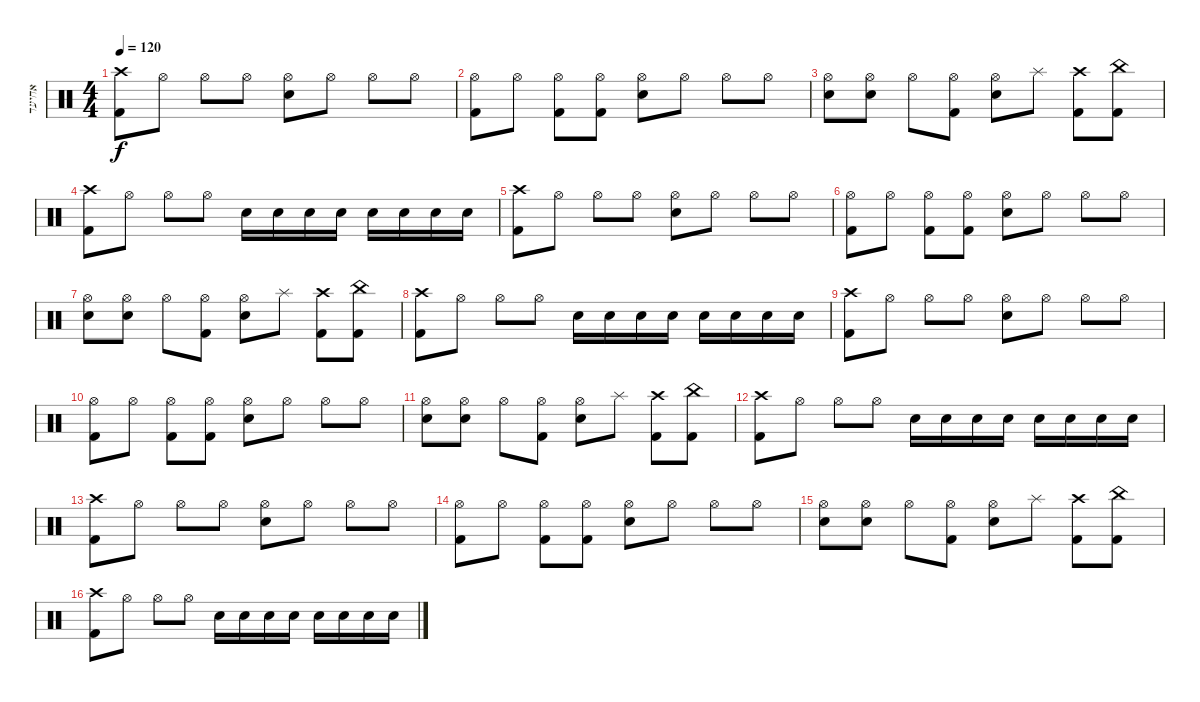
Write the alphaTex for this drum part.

\track ("אחיעד" "אחיעד") {instrument percussion}
\staff {score}
\articulation defaults
\ts (4 4)
\tempo 120
\clef neutral
\ks c
("Crash high (hit)" "Kick (hit) 2").8{dy f} "Hi-Hat (open)".8 "Hi-Hat (open)".8 "Hi-Hat (open)".8 ("Hi-Hat (open)" "Snare (hit) 2").8 "Hi-Hat (open)".8 "Hi-Hat (open)".8 "Hi-Hat (open)".8 |
("Hi-Hat (open)" "Kick (hit) 2").8 "Hi-Hat (open)".8 ("Hi-Hat (open)" "Kick (hit) 2").8 ("Hi-Hat (open)" "Kick (hit) 2").8 ("Hi-Hat (open)" "Snare (hit) 2").8 "Hi-Hat (open)".8 "Hi-Hat (open)".8 "Hi-Hat (open)".8 |
("Hi-Hat (open)" "Snare (hit) 2").8 ("Hi-Hat (open)" "Snare (hit) 2").8 "Hi-Hat (open)".8 ("Hi-Hat (open)" "Kick (hit) 2").8 ("Hi-Hat (open)" "Snare (hit) 2").8 "Splash (hit)".8 ("Crash high (hit)" "Kick (hit) 2").8 ("China (hit)" "Kick (hit) 2").8 |
("Crash high (hit)" "Kick (hit) 2").8 "Hi-Hat (open)".8 "Hi-Hat (open)".8 "Hi-Hat (open)".8 "Snare (hit) 2".16 "Snare (hit) 2".16 "Snare (hit) 2".16 "Snare (hit) 2".16 "Snare (hit) 2".16 "Snare (hit) 2".16 "Snare (hit) 2".16 "Snare (hit) 2".16 |
("Crash high (hit)" "Kick (hit) 2").8 "Hi-Hat (open)".8 "Hi-Hat (open)".8 "Hi-Hat (open)".8 ("Hi-Hat (open)" "Snare (hit) 2").8 "Hi-Hat (open)".8 "Hi-Hat (open)".8 "Hi-Hat (open)".8 |
("Hi-Hat (open)" "Kick (hit) 2").8 "Hi-Hat (open)".8 ("Hi-Hat (open)" "Kick (hit) 2").8 ("Hi-Hat (open)" "Kick (hit) 2").8 ("Hi-Hat (open)" "Snare (hit) 2").8 "Hi-Hat (open)".8 "Hi-Hat (open)".8 "Hi-Hat (open)".8 |
("Hi-Hat (open)" "Snare (hit) 2").8 ("Hi-Hat (open)" "Snare (hit) 2").8 "Hi-Hat (open)".8 ("Hi-Hat (open)" "Kick (hit) 2").8 ("Hi-Hat (open)" "Snare (hit) 2").8 "Splash (hit)".8 ("Crash high (hit)" "Kick (hit) 2").8 ("China (hit)" "Kick (hit) 2").8 |
("Crash high (hit)" "Kick (hit) 2").8 "Hi-Hat (open)".8 "Hi-Hat (open)".8 "Hi-Hat (open)".8 "Snare (hit) 2".16 "Snare (hit) 2".16 "Snare (hit) 2".16 "Snare (hit) 2".16 "Snare (hit) 2".16 "Snare (hit) 2".16 "Snare (hit) 2".16 "Snare (hit) 2".16 |
("Crash high (hit)" "Kick (hit) 2").8 "Hi-Hat (open)".8 "Hi-Hat (open)".8 "Hi-Hat (open)".8 ("Hi-Hat (open)" "Snare (hit) 2").8 "Hi-Hat (open)".8 "Hi-Hat (open)".8 "Hi-Hat (open)".8 |
("Hi-Hat (open)" "Kick (hit) 2").8 "Hi-Hat (open)".8 ("Hi-Hat (open)" "Kick (hit) 2").8 ("Hi-Hat (open)" "Kick (hit) 2").8 ("Hi-Hat (open)" "Snare (hit) 2").8 "Hi-Hat (open)".8 "Hi-Hat (open)".8 "Hi-Hat (open)".8 |
("Hi-Hat (open)" "Snare (hit) 2").8 ("Hi-Hat (open)" "Snare (hit) 2").8 "Hi-Hat (open)".8 ("Hi-Hat (open)" "Kick (hit) 2").8 ("Hi-Hat (open)" "Snare (hit) 2").8 "Splash (hit)".8 ("Crash high (hit)" "Kick (hit) 2").8 ("China (hit)" "Kick (hit) 2").8 |
("Crash high (hit)" "Kick (hit) 2").8 "Hi-Hat (open)".8 "Hi-Hat (open)".8 "Hi-Hat (open)".8 "Snare (hit) 2".16 "Snare (hit) 2".16 "Snare (hit) 2".16 "Snare (hit) 2".16 "Snare (hit) 2".16 "Snare (hit) 2".16 "Snare (hit) 2".16 "Snare (hit) 2".16 |
("Crash high (hit)" "Kick (hit) 2").8 "Hi-Hat (open)".8 "Hi-Hat (open)".8 "Hi-Hat (open)".8 ("Hi-Hat (open)" "Snare (hit) 2").8 "Hi-Hat (open)".8 "Hi-Hat (open)".8 "Hi-Hat (open)".8 |
("Hi-Hat (open)" "Kick (hit) 2").8 "Hi-Hat (open)".8 ("Hi-Hat (open)" "Kick (hit) 2").8 ("Hi-Hat (open)" "Kick (hit) 2").8 ("Hi-Hat (open)" "Snare (hit) 2").8 "Hi-Hat (open)".8 "Hi-Hat (open)".8 "Hi-Hat (open)".8 |
("Hi-Hat (open)" "Snare (hit) 2").8 ("Hi-Hat (open)" "Snare (hit) 2").8 "Hi-Hat (open)".8 ("Hi-Hat (open)" "Kick (hit) 2").8 ("Hi-Hat (open)" "Snare (hit) 2").8 "Splash (hit)".8 ("Crash high (hit)" "Kick (hit) 2").8 ("China (hit)" "Kick (hit) 2").8 |
("Crash high (hit)" "Kick (hit) 2").8 "Hi-Hat (open)".8 "Hi-Hat (open)".8 "Hi-Hat (open)".8 "Snare (hit) 2".16 "Snare (hit) 2".16 "Snare (hit) 2".16 "Snare (hit) 2".16 "Snare (hit) 2".16 "Snare (hit) 2".16 "Snare (hit) 2".16 "Snare (hit) 2".16
